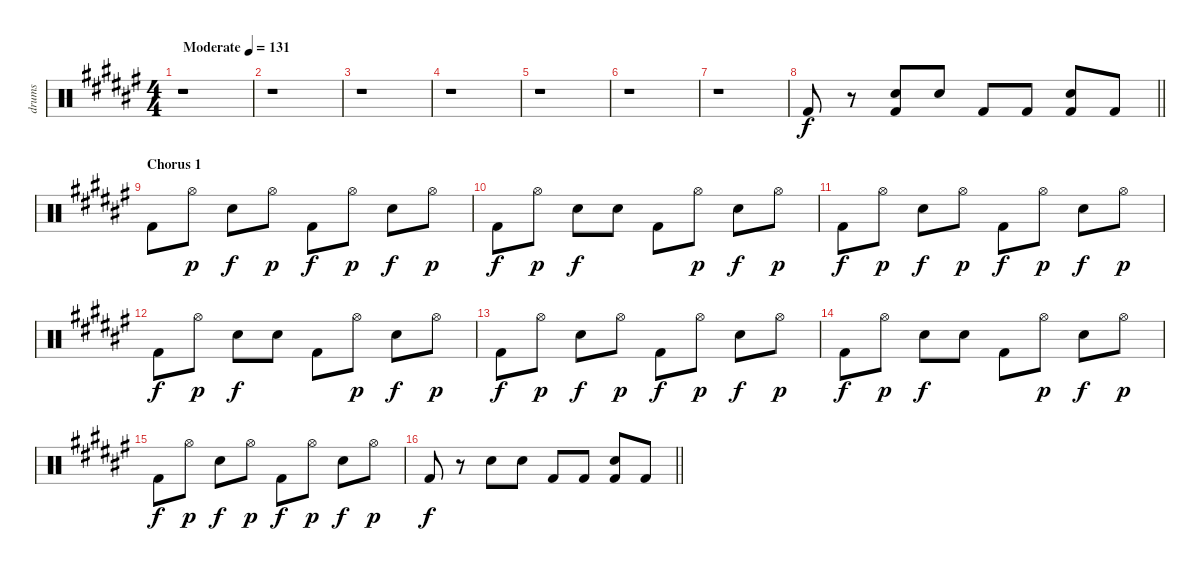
\track ("drums" "drums") {instrument percussion}
\staff {score}
\articulation defaults
\ts (4 4)
\tempo (131 "Moderate")
\clef neutral
\ks f#
r.1{dy f} |
r.1 |
r.1 |
r.1 |
r.1 |
r.1 |
r.1 |
\barLineRight lightlight "Kick (hit) 2".8
r.8 ("Snare (hit) 2" "Kick (hit) 2").8 "Snare (hit) 2".8 "Kick (hit) 2".8 "Kick (hit) 2".8 ("Snare (hit) 2" "Kick (hit) 2").8 "Kick (hit) 2".8 |
\section ("" "Chorus 1")
"Kick (hit) 2".8 "Hi-Hat (open)".8{dy p} "Snare (hit) 2".8{dy f} "Hi-Hat (open)".8{dy p} "Kick (hit) 2".8{dy f} "Hi-Hat (open)".8{dy p} "Snare (hit) 2".8{dy f} "Hi-Hat (open)".8{dy p} |
"Kick (hit) 2".8{dy f} "Hi-Hat (open)".8{dy p} "Snare (hit) 2".8{dy f} "Snare (hit) 2".8 "Kick (hit) 2".8 "Hi-Hat (open)".8{dy p} "Snare (hit) 2".8{dy f} "Hi-Hat (open)".8{dy p} |
"Kick (hit) 2".8{dy f} "Hi-Hat (open)".8{dy p} "Snare (hit) 2".8{dy f} "Hi-Hat (open)".8{dy p} "Kick (hit) 2".8{dy f} "Hi-Hat (open)".8{dy p} "Snare (hit) 2".8{dy f} "Hi-Hat (open)".8{dy p} |
"Kick (hit) 2".8{dy f} "Hi-Hat (open)".8{dy p} "Snare (hit) 2".8{dy f} "Snare (hit) 2".8 "Kick (hit) 2".8 "Hi-Hat (open)".8{dy p} "Snare (hit) 2".8{dy f} "Hi-Hat (open)".8{dy p} |
"Kick (hit) 2".8{dy f} "Hi-Hat (open)".8{dy p} "Snare (hit) 2".8{dy f} "Hi-Hat (open)".8{dy p} "Kick (hit) 2".8{dy f} "Hi-Hat (open)".8{dy p} "Snare (hit) 2".8{dy f} "Hi-Hat (open)".8{dy p} |
"Kick (hit) 2".8{dy f} "Hi-Hat (open)".8{dy p} "Snare (hit) 2".8{dy f} "Snare (hit) 2".8 "Kick (hit) 2".8 "Hi-Hat (open)".8{dy p} "Snare (hit) 2".8{dy f} "Hi-Hat (open)".8{dy p} |
"Kick (hit) 2".8{dy f} "Hi-Hat (open)".8{dy p} "Snare (hit) 2".8{dy f} "Hi-Hat (open)".8{dy p} "Kick (hit) 2".8{dy f} "Hi-Hat (open)".8{dy p} "Snare (hit) 2".8{dy f} "Hi-Hat (open)".8{dy p} |
\barLineRight lightlight "Kick (hit) 2".8{dy f}
r.8 "Snare (hit) 2".8 "Snare (hit) 2".8 "Kick (hit) 2".8 "Kick (hit) 2".8 ("Snare (hit) 2" "Kick (hit) 2").8 "Kick (hit) 2".8
